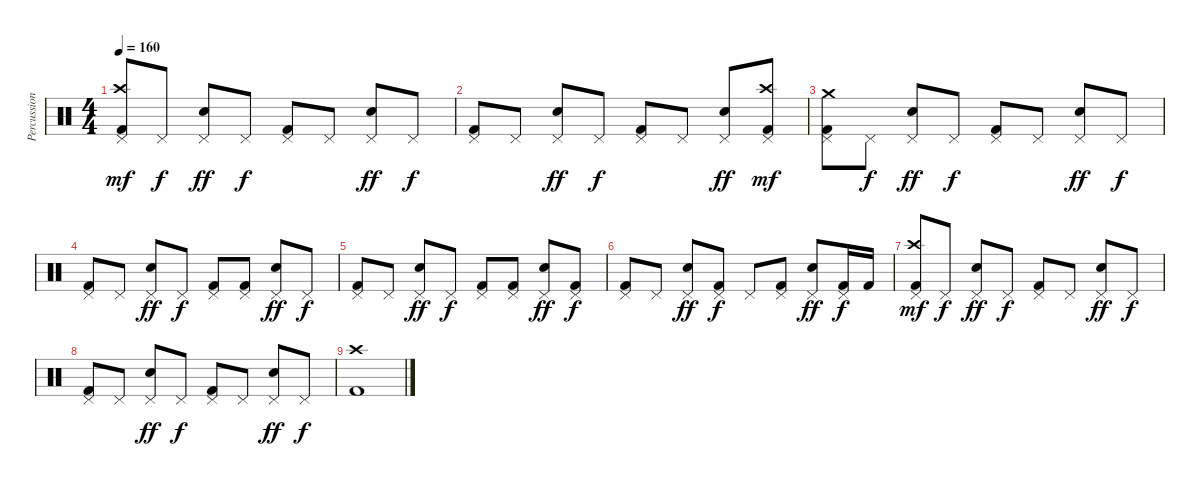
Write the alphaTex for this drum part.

\track ("Percussion" "Percussion") {instrument percussion}
\staff {score}
\articulation defaults
\ts (4 4)
\tempo 160
\clef neutral
\ks c
("Pedal Hi-Hat (hit)" "Crash high (hit)" "Kick (hit) 2").8{dy mf} "Pedal Hi-Hat (hit)".8{dy f} ("Pedal Hi-Hat (hit)" "Electric Snare (hit)").8{dy ff} "Pedal Hi-Hat (hit)".8{dy f} ("Pedal Hi-Hat (hit)" "Kick (hit) 2").8 "Pedal Hi-Hat (hit)".8 ("Pedal Hi-Hat (hit)" "Electric Snare (hit)").8{dy ff} "Pedal Hi-Hat (hit)".8{dy f} |
("Pedal Hi-Hat (hit)" "Kick (hit) 2").8 "Pedal Hi-Hat (hit)".8 ("Pedal Hi-Hat (hit)" "Electric Snare (hit)").8{dy ff} "Pedal Hi-Hat (hit)".8{dy f} ("Pedal Hi-Hat (hit)" "Kick (hit) 2").8 "Pedal Hi-Hat (hit)".8 ("Pedal Hi-Hat (hit)" "Electric Snare (hit)").8{dy ff} ("Pedal Hi-Hat (hit)" "Crash high (hit)" "Kick (hit) 2").8{dy mf} |
("Pedal Hi-Hat (hit)" "Crash medium (hit)" "Kick (hit) 2").8 "Pedal Hi-Hat (hit)".8{dy f} ("Pedal Hi-Hat (hit)" "Electric Snare (hit)").8{dy ff} "Pedal Hi-Hat (hit)".8{dy f} ("Pedal Hi-Hat (hit)" "Kick (hit) 2").8 "Pedal Hi-Hat (hit)".8 ("Pedal Hi-Hat (hit)" "Electric Snare (hit)").8{dy ff} "Pedal Hi-Hat (hit)".8{dy f} |
("Pedal Hi-Hat (hit)" "Kick (hit) 2").8 "Pedal Hi-Hat (hit)".8 ("Pedal Hi-Hat (hit)" "Electric Snare (hit)").8{dy ff} "Pedal Hi-Hat (hit)".8{dy f} ("Pedal Hi-Hat (hit)" "Kick (hit) 2").8 ("Pedal Hi-Hat (hit)" "Kick (hit) 2").8 ("Pedal Hi-Hat (hit)" "Electric Snare (hit)").8{dy ff} "Pedal Hi-Hat (hit)".8{dy f} |
("Pedal Hi-Hat (hit)" "Kick (hit) 2").8 "Pedal Hi-Hat (hit)".8 ("Pedal Hi-Hat (hit)" "Electric Snare (hit)").8{dy ff} "Pedal Hi-Hat (hit)".8{dy f} ("Pedal Hi-Hat (hit)" "Kick (hit) 2").8 ("Pedal Hi-Hat (hit)" "Kick (hit) 2").8 ("Pedal Hi-Hat (hit)" "Electric Snare (hit)").8{dy ff} ("Pedal Hi-Hat (hit)" "Kick (hit) 2").8{dy f} |
("Pedal Hi-Hat (hit)" "Kick (hit) 2").8 "Pedal Hi-Hat (hit)".8 ("Pedal Hi-Hat (hit)" "Electric Snare (hit)").8{dy ff} ("Pedal Hi-Hat (hit)" "Kick (hit) 2").8{dy f} "Pedal Hi-Hat (hit)".8 ("Pedal Hi-Hat (hit)" "Kick (hit) 2").8 ("Pedal Hi-Hat (hit)" "Electric Snare (hit)").8{dy ff} ("Pedal Hi-Hat (hit)" "Kick (hit) 2").16{dy f} "Kick (hit) 2".16 |
("Pedal Hi-Hat (hit)" "Crash high (hit)" "Kick (hit) 2").8{dy mf} "Pedal Hi-Hat (hit)".8{dy f} ("Pedal Hi-Hat (hit)" "Electric Snare (hit)").8{dy ff} "Pedal Hi-Hat (hit)".8{dy f} ("Pedal Hi-Hat (hit)" "Kick (hit) 2").8 "Pedal Hi-Hat (hit)".8 ("Pedal Hi-Hat (hit)" "Electric Snare (hit)").8{dy ff} "Pedal Hi-Hat (hit)".8{dy f} |
("Pedal Hi-Hat (hit)" "Kick (hit) 2").8 "Pedal Hi-Hat (hit)".8 ("Pedal Hi-Hat (hit)" "Electric Snare (hit)").8{dy ff} "Pedal Hi-Hat (hit)".8{dy f} ("Pedal Hi-Hat (hit)" "Kick (hit) 2").8 "Pedal Hi-Hat (hit)".8 ("Pedal Hi-Hat (hit)" "Electric Snare (hit)").8{dy ff} "Pedal Hi-Hat (hit)".8{dy f} |
("Crash high (hit)" "Kick (hit) 2").1
